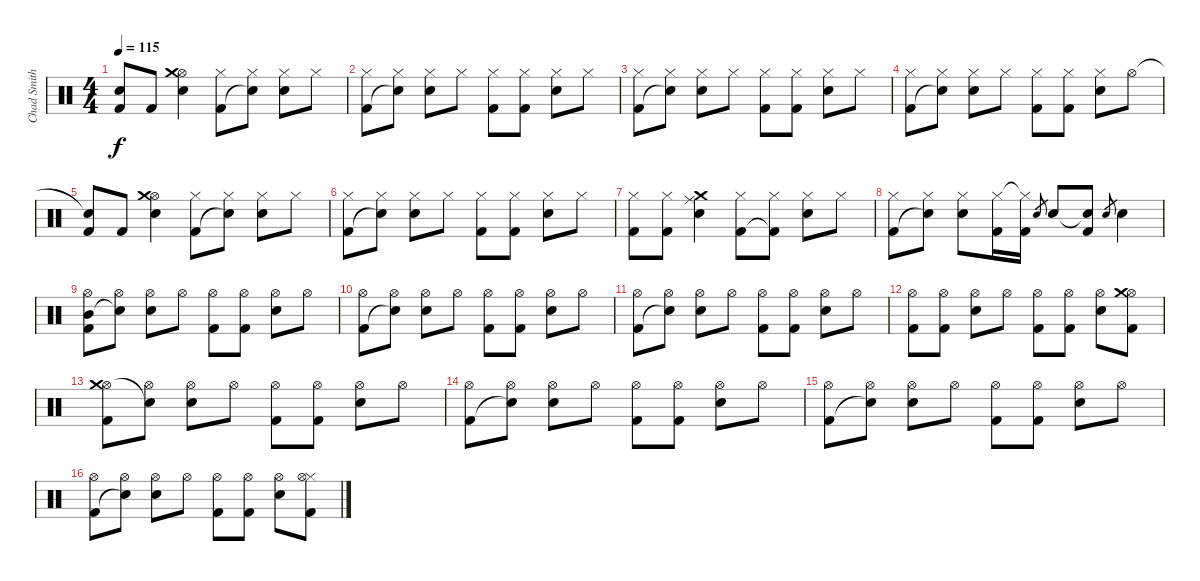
\track ("Chad Smith" "Chad Smith") {instrument percussion}
\staff {score}
\articulation defaults
\ts (4 4)
\tempo 115
\clef neutral
\ks c
("Snare (hit)"{t} "Kick (hit) 2").8{dy f} "Kick (hit) 2".8 ("Hi-Hat (open)" "Crash medium (hit)" "Electric Snare (hit)").4 ("Hi-Hat (closed)" "Kick (hit) 2").8 ("Hi-Hat (closed)" "Snare (hit)"{t}).8 ("Hi-Hat (closed)" "Electric Snare (hit)").8 "Hi-Hat (closed)".8 |
("Hi-Hat (closed)" "Kick (hit) 2").8 ("Hi-Hat (closed)" "Snare (hit)"{t}).8 ("Hi-Hat (closed)" "Electric Snare (hit)").8 "Hi-Hat (closed)".8 ("Hi-Hat (closed)" "Kick (hit) 2").8 ("Hi-Hat (closed)" "Kick (hit) 2").8 ("Hi-Hat (closed)" "Electric Snare (hit)").8 "Hi-Hat (closed)".8 |
("Hi-Hat (closed)" "Kick (hit) 2").8 ("Hi-Hat (closed)" "Snare (hit)"{t}).8 ("Hi-Hat (closed)" "Electric Snare (hit)").8 "Hi-Hat (closed)".8 ("Hi-Hat (closed)" "Kick (hit) 2").8 ("Hi-Hat (closed)" "Kick (hit) 2").8 ("Hi-Hat (closed)" "Electric Snare (hit)").8 "Hi-Hat (closed)".8 |
("Hi-Hat (closed)" "Kick (hit) 2").8 ("Hi-Hat (closed)" "Snare (hit)"{t}).8 ("Hi-Hat (closed)" "Electric Snare (hit)").8 "Hi-Hat (closed)".8 ("Hi-Hat (closed)" "Kick (hit) 2").8 ("Hi-Hat (closed)" "Kick (hit) 2").8 ("Hi-Hat (closed)" "Electric Snare (hit)").8 "Hi-Hat (open)".8 |
("Snare (hit)"{t} "Kick (hit) 2").8 "Kick (hit) 2".8 ("Hi-Hat (open)" "Crash medium (hit)" "Electric Snare (hit)").4 ("Hi-Hat (closed)" "Kick (hit) 2").8 ("Hi-Hat (closed)" "Snare (hit)"{t}).8 ("Hi-Hat (closed)" "Electric Snare (hit)").8 "Hi-Hat (closed)".8 |
("Hi-Hat (closed)" "Kick (hit) 2").8 ("Hi-Hat (closed)" "Snare (hit)"{t}).8 ("Hi-Hat (closed)" "Electric Snare (hit)").8 "Hi-Hat (closed)".8 ("Hi-Hat (closed)" "Kick (hit) 2").8 ("Hi-Hat (closed)" "Kick (hit) 2").8 ("Hi-Hat (closed)" "Electric Snare (hit)").8 "Hi-Hat (closed)".8 |
("Hi-Hat (closed)" "Kick (hit) 2").8 ("Hi-Hat (closed)" "Kick (hit) 2").8 ("Ride (middle)" "Crash medium (hit)" "Electric Snare (hit)").4 ("Hi-Hat (closed)" "Kick (hit) 2").8 ("Hi-Hat (closed)" "Kick (hit) 2"{t}).8 ("Hi-Hat (closed)" "Electric Snare (hit)").8 "Hi-Hat (closed)".8 |
("Hi-Hat (closed)" "Kick (hit) 2").8 ("Hi-Hat (closed)" "Snare (hit)"{t}).8 ("Hi-Hat (closed)" "Electric Snare (hit)").8 ("Hi-Hat (closed)" "Kick (hit) 2").16 ("Hi-Hat (closed)"{t} "Kick (hit) 2").16 "Electric Snare (hit)".8{gr} "Electric Snare (hit)".8 ("Electric Snare (hit)"{t} "Kick (hit) 2").8 "Electric Snare (hit)".8{gr} "Electric Snare (hit)".4 |
("Hi-Hat (open)" "Mid Tom (hit)" "Kick (hit) 2").8 ("Hi-Hat (open)" "Snare (hit)"{t}).8 ("Hi-Hat (open)" "Electric Snare (hit)").8 "Hi-Hat (open)".8 ("Hi-Hat (open)" "Kick (hit) 2").8 ("Hi-Hat (open)" "Kick (hit) 2").8 ("Hi-Hat (open)" "Electric Snare (hit)").8 "Hi-Hat (open)".8 |
("Hi-Hat (open)" "Kick (hit) 2").8 ("Hi-Hat (open)" "Snare (hit)"{t}).8 ("Hi-Hat (open)" "Electric Snare (hit)").8 "Hi-Hat (open)".8 ("Hi-Hat (open)" "Kick (hit) 2").8 ("Hi-Hat (open)" "Kick (hit) 2").8 ("Hi-Hat (open)" "Electric Snare (hit)").8 "Hi-Hat (open)".8 |
("Hi-Hat (open)" "Kick (hit) 2").8 ("Hi-Hat (open)" "Snare (hit)"{t}).8 ("Hi-Hat (open)" "Electric Snare (hit)").8 "Hi-Hat (open)".8 ("Hi-Hat (open)" "Kick (hit) 2").8 ("Hi-Hat (open)" "Kick (hit) 2").8 ("Hi-Hat (open)" "Electric Snare (hit)").8 "Hi-Hat (open)".8 |
("Hi-Hat (open)" "Kick (hit) 2").8 ("Hi-Hat (open)" "Kick (hit) 2").8 ("Hi-Hat (open)" "Electric Snare (hit)").8 "Hi-Hat (open)".8 ("Hi-Hat (open)" "Kick (hit) 2").8 ("Hi-Hat (open)" "Kick (hit) 2").8 ("Hi-Hat (open)" "Electric Snare (hit)").8 ("Hi-Hat (open)" "Crash medium (hit)" "Kick (hit) 2").8 |
("Hi-Hat (open)" "Crash medium (hit)" "Kick (hit) 2").8 ("Hi-Hat (open)" "Snare (hit)"{t}).8 ("Hi-Hat (open)" "Electric Snare (hit)").8 "Hi-Hat (open)".8 ("Hi-Hat (open)" "Kick (hit) 2").8 ("Hi-Hat (open)" "Kick (hit) 2").8 ("Hi-Hat (open)" "Electric Snare (hit)").8 "Hi-Hat (open)".8 |
("Hi-Hat (open)" "Kick (hit) 2").8 ("Hi-Hat (open)" "Snare (hit)"{t}).8 ("Hi-Hat (open)" "Electric Snare (hit)").8 "Hi-Hat (open)".8 ("Hi-Hat (open)" "Kick (hit) 2").8 ("Hi-Hat (open)" "Kick (hit) 2").8 ("Hi-Hat (open)" "Electric Snare (hit)").8 "Hi-Hat (open)".8 |
("Hi-Hat (open)" "Kick (hit) 2").8 ("Hi-Hat (open)" "Snare (hit)"{t}).8 ("Hi-Hat (open)" "Electric Snare (hit)").8 "Hi-Hat (open)".8 ("Hi-Hat (open)" "Kick (hit) 2").8 ("Hi-Hat (open)" "Kick (hit) 2").8 ("Hi-Hat (open)" "Electric Snare (hit)").8 "Hi-Hat (open)".8 |
("Hi-Hat (open)" "Kick (hit) 2").8 ("Hi-Hat (open)" "Snare (hit)"{t}).8 ("Hi-Hat (open)" "Electric Snare (hit)").8 "Hi-Hat (open)".8 ("Hi-Hat (open)" "Kick (hit) 2").8 ("Hi-Hat (open)" "Kick (hit) 2").8 ("Hi-Hat (open)" "Electric Snare (hit)").8 ("Hi-Hat (closed)" "Hi-Hat (open)" "Kick (hit) 2").8
